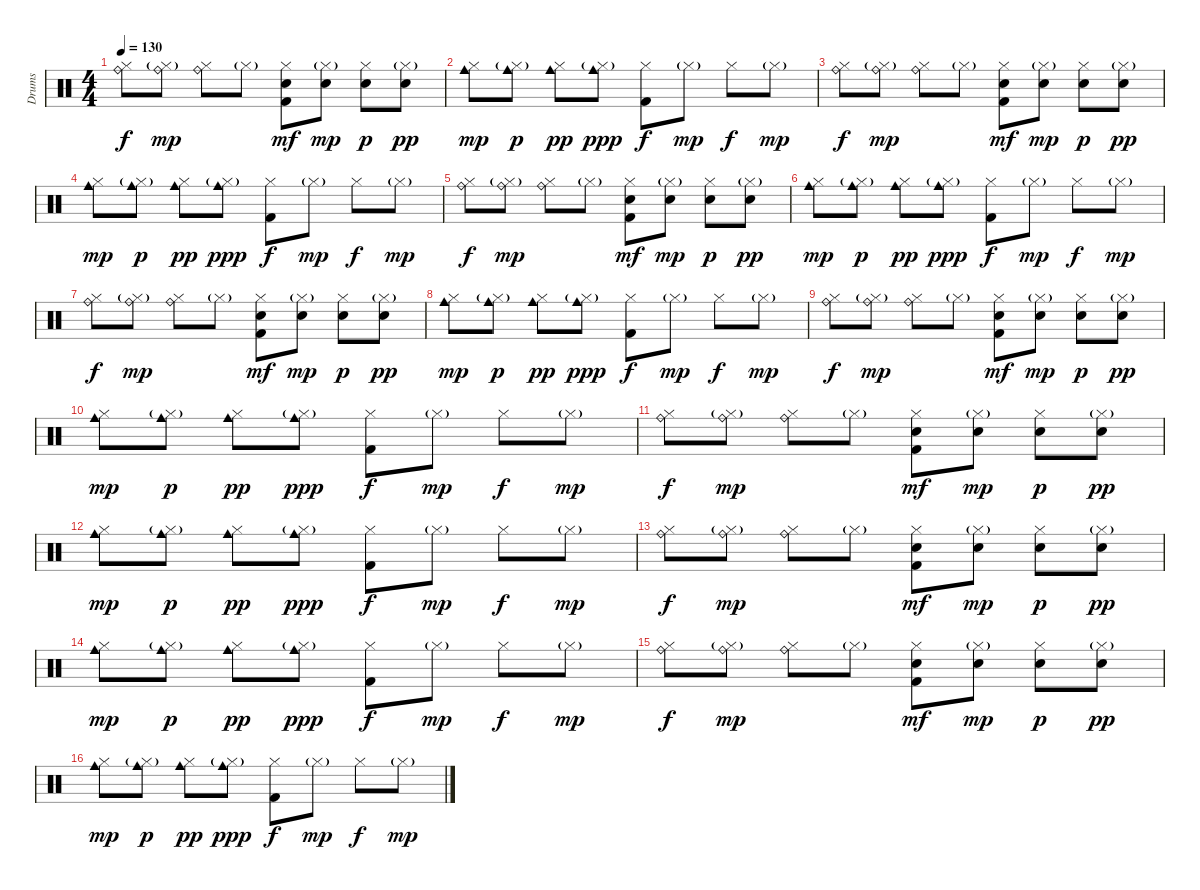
\track ("Drums" "Drums") {instrument percussion}
\staff {score}
\articulation defaults
\ts (4 4)
\tempo 130
\clef neutral
\ks c
("Ride (bell)" "Hi-Hat (closed)").8{dy f} ("Ride (bell)" "Hi-Hat (closed)"{g}).8{dy mp} ("Ride (bell)" "Hi-Hat (closed)").8 "Hi-Hat (closed)"{g}.8 ("Hi-Hat (closed)" "Hand Clap (hit)" "Kick (hit) 2").8{dy mf} ("Hi-Hat (closed)"{g} "Hand Clap (hit)").8{dy mp} ("Hi-Hat (closed)" "Hand Clap (hit)").8{dy p} ("Hi-Hat (closed)"{g} "Hand Clap (hit)").8{dy pp} |
("Hi-Hat (closed)" "Cowbell medium (hit)").8{dy mp} ("Hi-Hat (closed)"{g} "Cowbell medium (hit)").8{dy p} ("Hi-Hat (closed)" "Cowbell medium (hit)").8{dy pp} ("Hi-Hat (closed)"{g} "Cowbell medium (hit)").8{dy ppp} ("Hi-Hat (closed)" "Kick (hit) 2").8{dy f} "Hi-Hat (closed)"{g}.8{dy mp} "Hi-Hat (closed)".8{dy f} "Hi-Hat (closed)"{g}.8{dy mp} |
("Ride (bell)" "Hi-Hat (closed)").8{dy f} ("Ride (bell)" "Hi-Hat (closed)"{g}).8{dy mp} ("Ride (bell)" "Hi-Hat (closed)").8 "Hi-Hat (closed)"{g}.8 ("Hi-Hat (closed)" "Hand Clap (hit)" "Kick (hit) 2").8{dy mf} ("Hi-Hat (closed)"{g} "Hand Clap (hit)").8{dy mp} ("Hi-Hat (closed)" "Hand Clap (hit)").8{dy p} ("Hi-Hat (closed)"{g} "Hand Clap (hit)").8{dy pp} |
("Hi-Hat (closed)" "Cowbell medium (hit)").8{dy mp} ("Hi-Hat (closed)"{g} "Cowbell medium (hit)").8{dy p} ("Hi-Hat (closed)" "Cowbell medium (hit)").8{dy pp} ("Hi-Hat (closed)"{g} "Cowbell medium (hit)").8{dy ppp} ("Hi-Hat (closed)" "Kick (hit) 2").8{dy f} "Hi-Hat (closed)"{g}.8{dy mp} "Hi-Hat (closed)".8{dy f} "Hi-Hat (closed)"{g}.8{dy mp} |
("Ride (bell)" "Hi-Hat (closed)").8{dy f} ("Ride (bell)" "Hi-Hat (closed)"{g}).8{dy mp} ("Ride (bell)" "Hi-Hat (closed)").8 "Hi-Hat (closed)"{g}.8 ("Hi-Hat (closed)" "Hand Clap (hit)" "Kick (hit) 2").8{dy mf} ("Hi-Hat (closed)"{g} "Hand Clap (hit)").8{dy mp} ("Hi-Hat (closed)" "Hand Clap (hit)").8{dy p} ("Hi-Hat (closed)"{g} "Hand Clap (hit)").8{dy pp} |
("Hi-Hat (closed)" "Cowbell medium (hit)").8{dy mp} ("Hi-Hat (closed)"{g} "Cowbell medium (hit)").8{dy p} ("Hi-Hat (closed)" "Cowbell medium (hit)").8{dy pp} ("Hi-Hat (closed)"{g} "Cowbell medium (hit)").8{dy ppp} ("Hi-Hat (closed)" "Kick (hit) 2").8{dy f} "Hi-Hat (closed)"{g}.8{dy mp} "Hi-Hat (closed)".8{dy f} "Hi-Hat (closed)"{g}.8{dy mp} |
("Ride (bell)" "Hi-Hat (closed)").8{dy f} ("Ride (bell)" "Hi-Hat (closed)"{g}).8{dy mp} ("Ride (bell)" "Hi-Hat (closed)").8 "Hi-Hat (closed)"{g}.8 ("Hi-Hat (closed)" "Hand Clap (hit)" "Kick (hit) 2").8{dy mf} ("Hi-Hat (closed)"{g} "Hand Clap (hit)").8{dy mp} ("Hi-Hat (closed)" "Hand Clap (hit)").8{dy p} ("Hi-Hat (closed)"{g} "Hand Clap (hit)").8{dy pp} |
("Hi-Hat (closed)" "Cowbell medium (hit)").8{dy mp} ("Hi-Hat (closed)"{g} "Cowbell medium (hit)").8{dy p} ("Hi-Hat (closed)" "Cowbell medium (hit)").8{dy pp} ("Hi-Hat (closed)"{g} "Cowbell medium (hit)").8{dy ppp} ("Hi-Hat (closed)" "Kick (hit) 2").8{dy f} "Hi-Hat (closed)"{g}.8{dy mp} "Hi-Hat (closed)".8{dy f} "Hi-Hat (closed)"{g}.8{dy mp} |
("Ride (bell)" "Hi-Hat (closed)").8{dy f} ("Ride (bell)" "Hi-Hat (closed)"{g}).8{dy mp} ("Ride (bell)" "Hi-Hat (closed)").8 "Hi-Hat (closed)"{g}.8 ("Hi-Hat (closed)" "Hand Clap (hit)" "Kick (hit) 2").8{dy mf} ("Hi-Hat (closed)"{g} "Hand Clap (hit)").8{dy mp} ("Hi-Hat (closed)" "Hand Clap (hit)").8{dy p} ("Hi-Hat (closed)"{g} "Hand Clap (hit)").8{dy pp} |
("Hi-Hat (closed)" "Cowbell medium (hit)").8{dy mp} ("Hi-Hat (closed)"{g} "Cowbell medium (hit)").8{dy p} ("Hi-Hat (closed)" "Cowbell medium (hit)").8{dy pp} ("Hi-Hat (closed)"{g} "Cowbell medium (hit)").8{dy ppp} ("Hi-Hat (closed)" "Kick (hit) 2").8{dy f} "Hi-Hat (closed)"{g}.8{dy mp} "Hi-Hat (closed)".8{dy f} "Hi-Hat (closed)"{g}.8{dy mp} |
("Ride (bell)" "Hi-Hat (closed)").8{dy f} ("Ride (bell)" "Hi-Hat (closed)"{g}).8{dy mp} ("Ride (bell)" "Hi-Hat (closed)").8 "Hi-Hat (closed)"{g}.8 ("Hi-Hat (closed)" "Hand Clap (hit)" "Kick (hit) 2").8{dy mf} ("Hi-Hat (closed)"{g} "Hand Clap (hit)").8{dy mp} ("Hi-Hat (closed)" "Hand Clap (hit)").8{dy p} ("Hi-Hat (closed)"{g} "Hand Clap (hit)").8{dy pp} |
("Hi-Hat (closed)" "Cowbell medium (hit)").8{dy mp} ("Hi-Hat (closed)"{g} "Cowbell medium (hit)").8{dy p} ("Hi-Hat (closed)" "Cowbell medium (hit)").8{dy pp} ("Hi-Hat (closed)"{g} "Cowbell medium (hit)").8{dy ppp} ("Hi-Hat (closed)" "Kick (hit) 2").8{dy f} "Hi-Hat (closed)"{g}.8{dy mp} "Hi-Hat (closed)".8{dy f} "Hi-Hat (closed)"{g}.8{dy mp} |
("Ride (bell)" "Hi-Hat (closed)").8{dy f} ("Ride (bell)" "Hi-Hat (closed)"{g}).8{dy mp} ("Ride (bell)" "Hi-Hat (closed)").8 "Hi-Hat (closed)"{g}.8 ("Hi-Hat (closed)" "Hand Clap (hit)" "Kick (hit) 2").8{dy mf} ("Hi-Hat (closed)"{g} "Hand Clap (hit)").8{dy mp} ("Hi-Hat (closed)" "Hand Clap (hit)").8{dy p} ("Hi-Hat (closed)"{g} "Hand Clap (hit)").8{dy pp} |
("Hi-Hat (closed)" "Cowbell medium (hit)").8{dy mp} ("Hi-Hat (closed)"{g} "Cowbell medium (hit)").8{dy p} ("Hi-Hat (closed)" "Cowbell medium (hit)").8{dy pp} ("Hi-Hat (closed)"{g} "Cowbell medium (hit)").8{dy ppp} ("Hi-Hat (closed)" "Kick (hit) 2").8{dy f} "Hi-Hat (closed)"{g}.8{dy mp} "Hi-Hat (closed)".8{dy f} "Hi-Hat (closed)"{g}.8{dy mp} |
("Ride (bell)" "Hi-Hat (closed)").8{dy f} ("Ride (bell)" "Hi-Hat (closed)"{g}).8{dy mp} ("Ride (bell)" "Hi-Hat (closed)").8 "Hi-Hat (closed)"{g}.8 ("Hi-Hat (closed)" "Hand Clap (hit)" "Kick (hit) 2").8{dy mf} ("Hi-Hat (closed)"{g} "Hand Clap (hit)").8{dy mp} ("Hi-Hat (closed)" "Hand Clap (hit)").8{dy p} ("Hi-Hat (closed)"{g} "Hand Clap (hit)").8{dy pp} |
("Hi-Hat (closed)" "Cowbell medium (hit)").8{dy mp} ("Hi-Hat (closed)"{g} "Cowbell medium (hit)").8{dy p} ("Hi-Hat (closed)" "Cowbell medium (hit)").8{dy pp} ("Hi-Hat (closed)"{g} "Cowbell medium (hit)").8{dy ppp} ("Hi-Hat (closed)" "Kick (hit) 2").8{dy f} "Hi-Hat (closed)"{g}.8{dy mp} "Hi-Hat (closed)".8{dy f} "Hi-Hat (closed)"{g}.8{dy mp}
